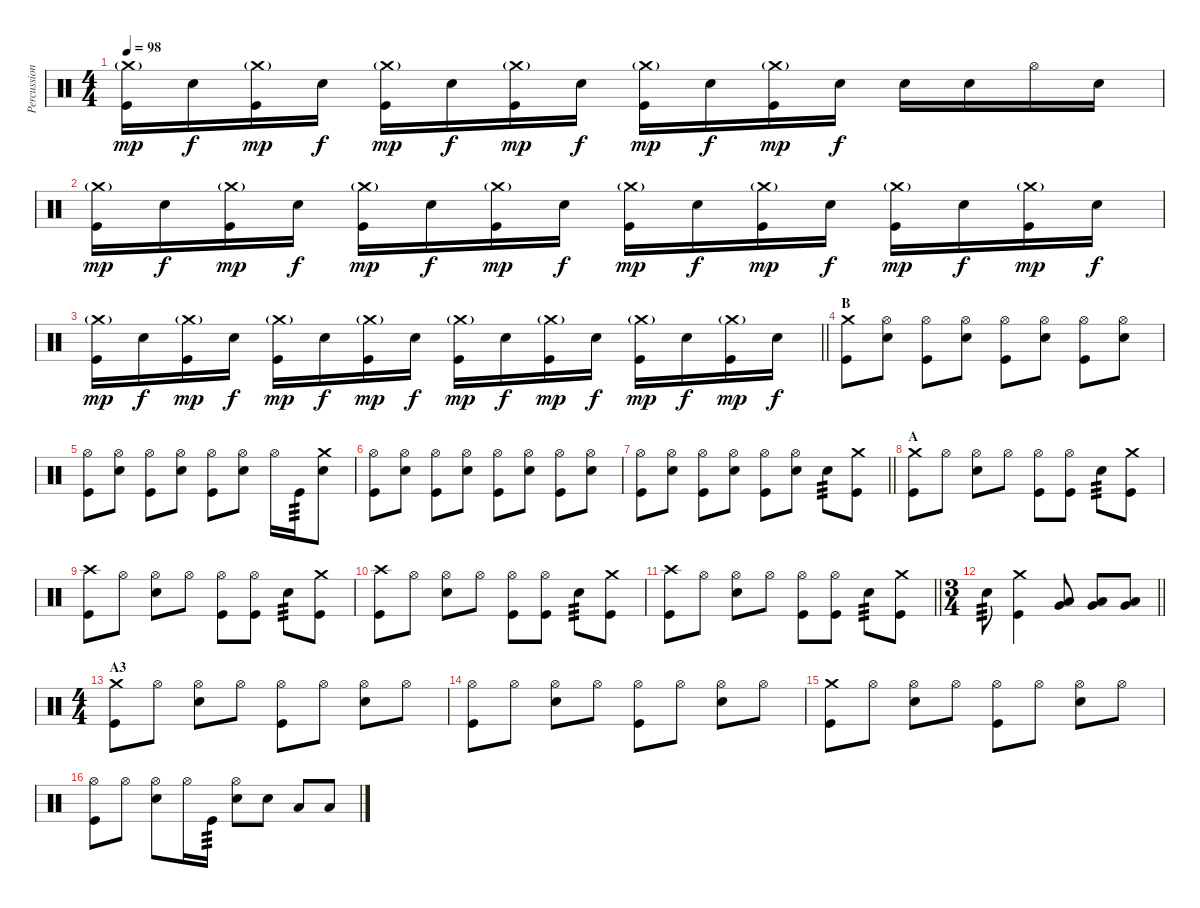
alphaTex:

\track ("Percussion" "Percussion") {instrument percussion}
\staff {score}
\articulation defaults
\ts (4 4)
\tempo 98
\clef neutral
\ks c
("Kick (hit)" "Crash medium (hit)"{g}).16{dy mp} "Snare (hit) 2".16{dy f} ("Kick (hit)" "Crash medium (hit)"{g}).16{dy mp} "Snare (hit) 2".16{dy f} ("Kick (hit)" "Crash medium (hit)"{g}).16{dy mp} "Snare (hit) 2".16{dy f} ("Kick (hit)" "Crash medium (hit)"{g}).16{dy mp} "Snare (hit) 2".16{dy f} ("Kick (hit)" "Crash medium (hit)"{g}).16{dy mp} "Snare (hit) 2".16{dy f} ("Kick (hit)" "Crash medium (hit)"{g}).16{dy mp} "Snare (hit) 2".16{dy f} "Snare (hit) 2".16 "Snare (hit) 2".16 "Hi-Hat (open)".16 "Snare (hit) 2".16 |
("Kick (hit)" "Crash medium (hit)"{g}).16{dy mp} "Snare (hit) 2".16{dy f} ("Kick (hit)" "Crash medium (hit)"{g}).16{dy mp} "Snare (hit) 2".16{dy f} ("Kick (hit)" "Crash medium (hit)"{g}).16{dy mp} "Snare (hit) 2".16{dy f} ("Kick (hit)" "Crash medium (hit)"{g}).16{dy mp} "Snare (hit) 2".16{dy f} ("Kick (hit)" "Crash medium (hit)"{g}).16{dy mp} "Snare (hit) 2".16{dy f} ("Kick (hit)" "Crash medium (hit)"{g}).16{dy mp} "Snare (hit) 2".16{dy f} ("Kick (hit)" "Crash medium (hit)"{g}).16{dy mp} "Snare (hit) 2".16{dy f} ("Kick (hit)" "Crash medium (hit)"{g}).16{dy mp} "Snare (hit) 2".16{dy f} |
\barLineRight lightlight
("Kick (hit)" "Crash medium (hit)"{g}).16{dy mp} "Snare (hit) 2".16{dy f} ("Kick (hit)" "Crash medium (hit)"{g}).16{dy mp} "Snare (hit) 2".16{dy f} ("Kick (hit)" "Crash medium (hit)"{g}).16{dy mp} "Snare (hit) 2".16{dy f} ("Kick (hit)" "Crash medium (hit)"{g}).16{dy mp} "Snare (hit) 2".16{dy f} ("Kick (hit)" "Crash medium (hit)"{g}).16{dy mp} "Snare (hit) 2".16{dy f} ("Kick (hit)" "Crash medium (hit)"{g}).16{dy mp} "Snare (hit) 2".16{dy f} ("Kick (hit)" "Crash medium (hit)"{g}).16{dy mp} "Snare (hit) 2".16{dy f} ("Kick (hit)" "Crash medium (hit)"{g}).16{dy mp} "Snare (hit) 2".16{dy f} |
\section ("" "B")
("Crash medium (hit)" "Kick (hit)").8 ("Hi-Hat (open)" "Snare (hit) 2").8 ("Hi-Hat (open)" "Kick (hit)").8 ("Hi-Hat (open)" "Snare (hit) 2").8 ("Hi-Hat (open)" "Kick (hit)").8 ("Hi-Hat (open)" "Snare (hit) 2").8 ("Hi-Hat (open)" "Kick (hit)").8 ("Hi-Hat (open)" "Snare (hit) 2").8 |
("Hi-Hat (open)" "Kick (hit)").8 ("Hi-Hat (open)" "Snare (hit) 2").8 ("Hi-Hat (open)" "Kick (hit)").8 ("Hi-Hat (open)" "Snare (hit) 2").8 ("Hi-Hat (open)" "Kick (hit)").8 ("Hi-Hat (open)" "Snare (hit) 2").8 "Hi-Hat (open)".16 "Kick (hit)".16{tp 3} ("Crash medium (hit)" "Snare (hit) 2").8 |
("Hi-Hat (open)" "Kick (hit)").8 ("Hi-Hat (open)" "Snare (hit) 2").8 ("Hi-Hat (open)" "Kick (hit)").8 ("Hi-Hat (open)" "Snare (hit) 2").8 ("Hi-Hat (open)" "Kick (hit)").8 ("Hi-Hat (open)" "Snare (hit) 2").8 ("Hi-Hat (open)" "Kick (hit)").8 ("Hi-Hat (open)" "Snare (hit) 2").8 |
\barLineRight lightlight
("Hi-Hat (open)" "Kick (hit)").8 ("Hi-Hat (open)" "Snare (hit) 2").8 ("Hi-Hat (open)" "Kick (hit)").8 ("Hi-Hat (open)" "Snare (hit) 2").8 ("Hi-Hat (open)" "Kick (hit)").8 ("Hi-Hat (open)" "Snare (hit) 2").8 "Snare (hit) 2".8{tp 3} ("Kick (hit)" "Crash medium (hit)").8 |
\section ("" "A")
("Kick (hit)" "Crash medium (hit)").8 "Hi-Hat (open)".8 ("Hi-Hat (open)" "Snare (hit) 2").8 "Hi-Hat (open)".8 ("Hi-Hat (open)" "Kick (hit)").8 ("Hi-Hat (open)" "Kick (hit)").8 "Snare (hit) 2".8{tp 3} ("Kick (hit)" "Crash medium (hit)").8 |
("Kick (hit)" "Crash high (hit)").8 "Hi-Hat (open)".8 ("Hi-Hat (open)" "Snare (hit) 2").8 "Hi-Hat (open)".8 ("Hi-Hat (open)" "Kick (hit)").8 ("Hi-Hat (open)" "Kick (hit)").8 "Snare (hit) 2".8{tp 3} ("Kick (hit)" "Crash medium (hit)").8 |
("Kick (hit)" "Crash high (hit)").8 "Hi-Hat (open)".8 ("Hi-Hat (open)" "Snare (hit) 2").8 "Hi-Hat (open)".8 ("Hi-Hat (open)" "Kick (hit)").8 ("Hi-Hat (open)" "Kick (hit)").8 "Snare (hit) 2".8{tp 3} ("Kick (hit)" "Crash medium (hit)").8 |
\barLineRight lightlight
("Kick (hit)" "Crash high (hit)").8 "Hi-Hat (open)".8 ("Hi-Hat (open)" "Snare (hit) 2").8 "Hi-Hat (open)".8 ("Hi-Hat (open)" "Kick (hit)").8 ("Hi-Hat (open)" "Kick (hit)").8 "Snare (hit) 2".8{tp 3} ("Kick (hit)" "Crash medium (hit)").8 |
\ts (3 4)
\barLineRight lightlight "Snare (hit) 2".8{tp 3}
("Kick (hit)" "Crash medium (hit)").4 ("Low Floor Tom (hit)" "Very Low Tom (hit)").8 ("Low Floor Tom (hit)" "Very Low Tom (hit)").8 ("Low Floor Tom (hit)" "Very Low Tom (hit)").8 |
\ts (4 4)
\section ("" "A3")
("Crash medium (hit)" "Kick (hit)").8 "Hi-Hat (open)".8 ("Hi-Hat (open)" "Snare (hit) 2").8 "Hi-Hat (open)".8 ("Hi-Hat (open)" "Kick (hit)").8 "Hi-Hat (open)".8 ("Hi-Hat (open)" "Snare (hit) 2").8 "Hi-Hat (open)".8 |
("Hi-Hat (open)" "Kick (hit)").8 "Hi-Hat (open)".8 ("Hi-Hat (open)" "Snare (hit) 2").8 "Hi-Hat (open)".8 ("Hi-Hat (open)" "Kick (hit)").8 "Hi-Hat (open)".8 ("Hi-Hat (open)" "Snare (hit) 2").8 "Hi-Hat (open)".8 |
("Crash medium (hit)" "Kick (hit)").8 "Hi-Hat (open)".8 ("Hi-Hat (open)" "Snare (hit) 2").8 "Hi-Hat (open)".8 ("Hi-Hat (open)" "Kick (hit)").8 "Hi-Hat (open)".8 ("Hi-Hat (open)" "Snare (hit) 2").8 "Hi-Hat (open)".8 |
("Hi-Hat (open)" "Kick (hit)").8 "Hi-Hat (open)".8 ("Hi-Hat (open)" "Snare (hit) 2").8 "Hi-Hat (open)".16 "Kick (hit)".16{tp 3} ("Hi-Hat (open)" "Snare (hit) 2").8 "Snare (hit) 2".8 "Low Floor Tom (hit)".8 "Low Floor Tom (hit)".8
